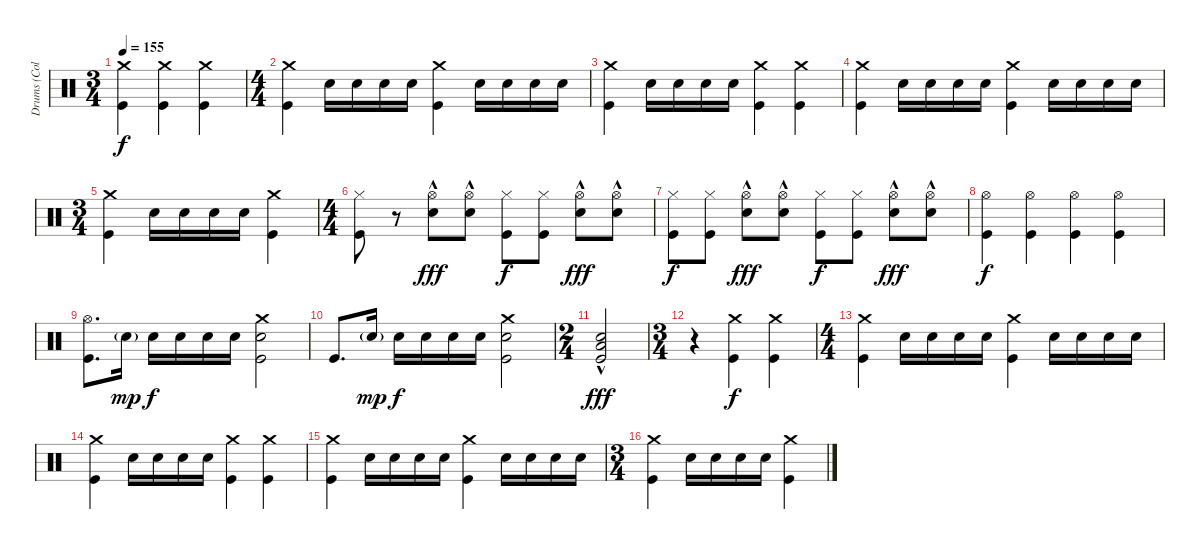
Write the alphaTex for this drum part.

\track ("Drums (Collins)" "Drums (Col") {instrument percussion}
\staff {score}
\articulation defaults
\ts (3 4)
\tempo 155
\clef neutral
\ks c
("Crash medium (hit)" "Kick (hit)").4{dy f} ("Crash medium (hit)" "Kick (hit)").4 ("Crash medium (hit)" "Kick (hit)").4 |
\ts (4 4)
("Crash medium (hit)" "Kick (hit)").4 "Snare (hit) 2".16 "Snare (hit) 2".16 "Snare (hit) 2".16 "Snare (hit) 2".16 ("Crash medium (hit)" "Kick (hit)").4 "Snare (hit) 2".16 "Snare (hit) 2".16 "Snare (hit) 2".16 "Snare (hit) 2".16 |
("Crash medium (hit)" "Kick (hit)").4 "Snare (hit) 2".16 "Snare (hit) 2".16 "Snare (hit) 2".16 "Snare (hit) 2".16 ("Crash medium (hit)" "Kick (hit)").4 ("Crash medium (hit)" "Kick (hit)").4 |
("Crash medium (hit)" "Kick (hit)").4 "Snare (hit) 2".16 "Snare (hit) 2".16 "Snare (hit) 2".16 "Snare (hit) 2".16 ("Crash medium (hit)" "Kick (hit)").4 "Snare (hit) 2".16 "Snare (hit) 2".16 "Snare (hit) 2".16 "Snare (hit) 2".16 |
\ts (3 4)
("Crash medium (hit)" "Kick (hit)").4 "Snare (hit) 2".16 "Snare (hit) 2".16 "Snare (hit) 2".16 "Snare (hit) 2".16 ("Crash medium (hit)" "Kick (hit)").4 |
\ts (4 4)
("Hi-Hat (closed)" "Kick (hit)").8 r.8 ("Hi-Hat (open)"{hac} "Snare (hit) 2").8{dy fff} ("Hi-Hat (open)"{hac} "Snare (hit) 2").8 ("Hi-Hat (closed)" "Kick (hit)").8{dy f} ("Hi-Hat (closed)" "Kick (hit)").8 ("Hi-Hat (open)"{hac} "Snare (hit) 2").8{dy fff} ("Hi-Hat (open)"{hac} "Snare (hit) 2").8 |
("Hi-Hat (closed)" "Kick (hit)").8{dy f} ("Hi-Hat (closed)" "Kick (hit)").8 ("Hi-Hat (open)"{hac} "Snare (hit) 2").8{dy fff} ("Hi-Hat (open)"{hac} "Snare (hit) 2").8 ("Hi-Hat (closed)" "Kick (hit)").8{dy f} ("Hi-Hat (closed)" "Kick (hit)").8 ("Hi-Hat (open)"{hac} "Snare (hit) 2").8{dy fff} ("Hi-Hat (open)"{hac} "Snare (hit) 2").8 |
("Hi-Hat (open)" "Kick (hit)").4{dy f} ("Hi-Hat (open)" "Kick (hit)").4 ("Hi-Hat (open)" "Kick (hit)").4 ("Hi-Hat (open)" "Kick (hit)").4 |
("Hi-Hat (open)" "Kick (hit)").8{d} "Snare (hit) 2"{g}.16{dy mp} "Snare (hit) 2".16{dy f} "Snare (hit) 2".16 "Snare (hit) 2".16 "Snare (hit) 2".16 ("Crash medium (hit)" "Snare (hit) 2" "Kick (hit)").2 |
"Kick (hit)".8{d} "Snare (hit) 2"{g}.16{dy mp} "Snare (hit) 2".16{dy f} "Snare (hit) 2".16 "Snare (hit) 2".16 "Snare (hit) 2".16 ("Crash medium (hit)" "Snare (hit) 2" "Kick (hit)").2 |
\ts (2 4)
("Snare (hit) 2"{hac} "Low Floor Tom (hit)"{hac} "Kick (hit)"{hac}).2{dy fff} |
\ts (3 4)
r.4 ("Crash medium (hit)" "Kick (hit)").4{dy f} ("Crash medium (hit)" "Kick (hit)").4 |
\ts (4 4)
("Crash medium (hit)" "Kick (hit)").4 "Snare (hit) 2".16 "Snare (hit) 2".16 "Snare (hit) 2".16 "Snare (hit) 2".16 ("Crash medium (hit)" "Kick (hit)").4 "Snare (hit) 2".16 "Snare (hit) 2".16 "Snare (hit) 2".16 "Snare (hit) 2".16 |
("Crash medium (hit)" "Kick (hit)").4 "Snare (hit) 2".16 "Snare (hit) 2".16 "Snare (hit) 2".16 "Snare (hit) 2".16 ("Crash medium (hit)" "Kick (hit)").4 ("Crash medium (hit)" "Kick (hit)").4 |
("Crash medium (hit)" "Kick (hit)").4 "Snare (hit) 2".16 "Snare (hit) 2".16 "Snare (hit) 2".16 "Snare (hit) 2".16 ("Crash medium (hit)" "Kick (hit)").4 "Snare (hit) 2".16 "Snare (hit) 2".16 "Snare (hit) 2".16 "Snare (hit) 2".16 |
\ts (3 4)
("Crash medium (hit)" "Kick (hit)").4 "Snare (hit) 2".16 "Snare (hit) 2".16 "Snare (hit) 2".16 "Snare (hit) 2".16 ("Crash medium (hit)" "Kick (hit)").4
